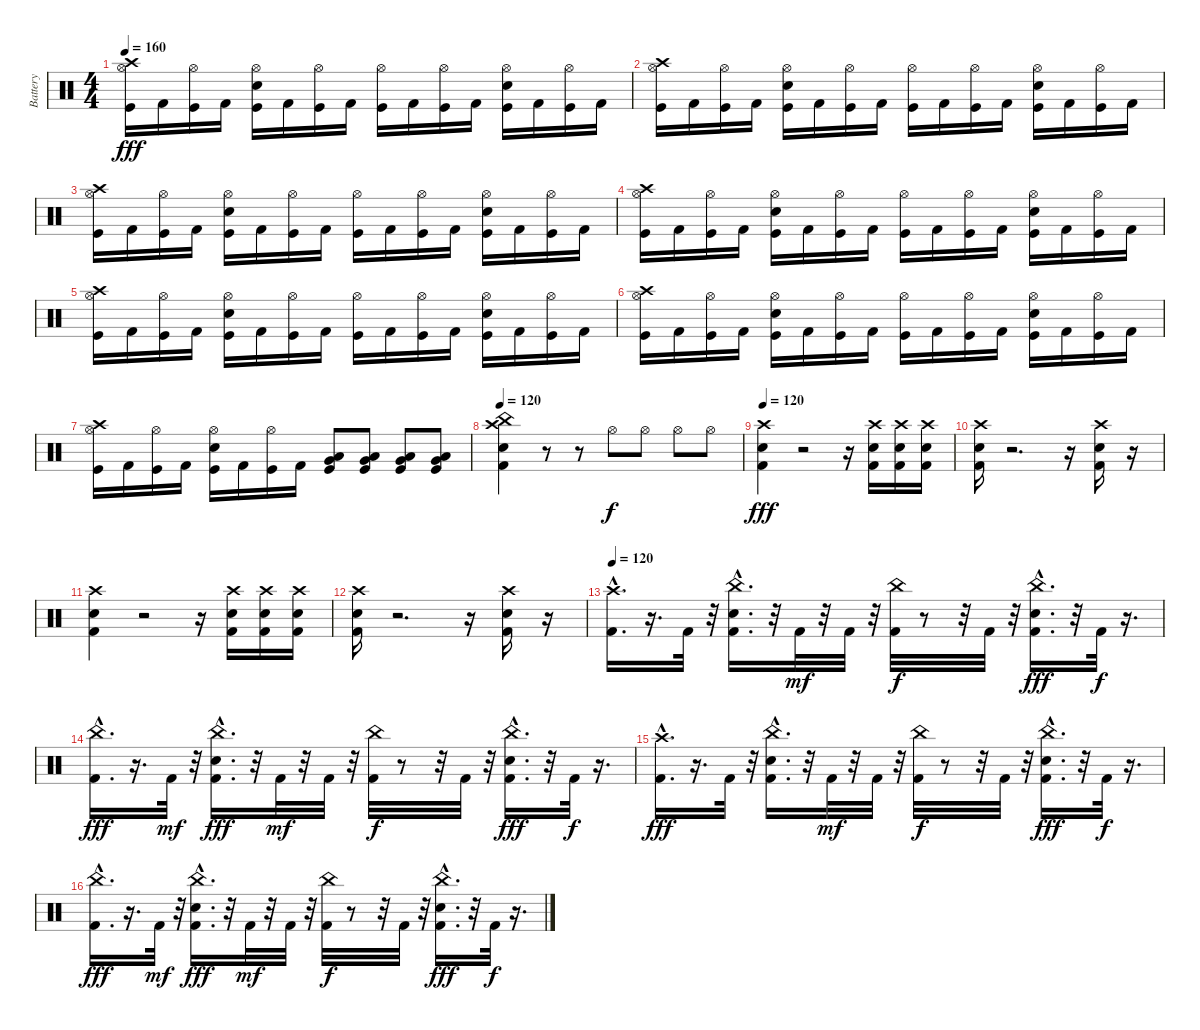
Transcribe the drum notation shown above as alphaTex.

\track ("Battery" "Battery") {instrument percussion}
\staff {score}
\articulation defaults
\ts (4 4)
\tempo 160
\clef neutral
\ks c
("Hi-Hat (open)" "Crash high (hit)" "Kick (hit)").16{dy fff} "Kick (hit) 2".16 ("Hi-Hat (open)" "Kick (hit)").16 "Kick (hit) 2".16 ("Electric Snare (hit)" "Hi-Hat (open)" "Kick (hit)").16 "Kick (hit) 2".16 ("Hi-Hat (open)" "Kick (hit)").16 "Kick (hit) 2".16 ("Hi-Hat (open)" "Kick (hit)").16 "Kick (hit) 2".16 ("Hi-Hat (open)" "Kick (hit)").16 "Kick (hit) 2".16 ("Electric Snare (hit)" "Hi-Hat (open)" "Kick (hit)").16 "Kick (hit) 2".16 ("Hi-Hat (open)" "Kick (hit)").16 "Kick (hit) 2".16 |
("Crash high (hit)" "Hi-Hat (open)" "Kick (hit)").16 "Kick (hit) 2".16 ("Hi-Hat (open)" "Kick (hit)").16 "Kick (hit) 2".16 ("Electric Snare (hit)" "Hi-Hat (open)" "Kick (hit)").16 "Kick (hit) 2".16 ("Hi-Hat (open)" "Kick (hit)").16 "Kick (hit) 2".16 ("Hi-Hat (open)" "Kick (hit)").16 "Kick (hit) 2".16 ("Hi-Hat (open)" "Kick (hit)").16 "Kick (hit) 2".16 ("Hi-Hat (open)" "Electric Snare (hit)" "Kick (hit)").16 "Kick (hit) 2".16 ("Hi-Hat (open)" "Kick (hit)").16 "Kick (hit) 2".16 |
("Hi-Hat (open)" "Crash high (hit)" "Kick (hit)").16 "Kick (hit) 2".16 ("Hi-Hat (open)" "Kick (hit)").16 "Kick (hit) 2".16 ("Hi-Hat (open)" "Electric Snare (hit)" "Kick (hit)").16 "Kick (hit) 2".16 ("Hi-Hat (open)" "Kick (hit)").16 "Kick (hit) 2".16 ("Hi-Hat (open)" "Kick (hit)").16 "Kick (hit) 2".16 ("Hi-Hat (open)" "Kick (hit)").16 "Kick (hit) 2".16 ("Electric Snare (hit)" "Hi-Hat (open)" "Kick (hit)").16 "Kick (hit) 2".16 ("Hi-Hat (open)" "Kick (hit)").16 "Kick (hit) 2".16 |
("Crash high (hit)" "Hi-Hat (open)" "Kick (hit)").16 "Kick (hit) 2".16 ("Hi-Hat (open)" "Kick (hit)").16 "Kick (hit) 2".16 ("Hi-Hat (open)" "Electric Snare (hit)" "Kick (hit)").16 "Kick (hit) 2".16 ("Hi-Hat (open)" "Kick (hit)").16 "Kick (hit) 2".16 ("Hi-Hat (open)" "Kick (hit)").16 "Kick (hit) 2".16 ("Hi-Hat (open)" "Kick (hit)").16 "Kick (hit) 2".16 ("Hi-Hat (open)" "Electric Snare (hit)" "Kick (hit)").16 "Kick (hit) 2".16 ("Hi-Hat (open)" "Kick (hit)").16 "Kick (hit) 2".16 |
("Crash high (hit)" "Hi-Hat (open)" "Kick (hit)").16 "Kick (hit) 2".16 ("Hi-Hat (open)" "Kick (hit)").16 "Kick (hit) 2".16 ("Electric Snare (hit)" "Hi-Hat (open)" "Kick (hit)").16 "Kick (hit) 2".16 ("Hi-Hat (open)" "Kick (hit)").16 "Kick (hit) 2".16 ("Hi-Hat (open)" "Kick (hit)").16 "Kick (hit) 2".16 ("Hi-Hat (open)" "Kick (hit)").16 "Kick (hit) 2".16 ("Electric Snare (hit)" "Hi-Hat (open)" "Kick (hit)").16 "Kick (hit) 2".16 ("Hi-Hat (open)" "Kick (hit)").16 "Kick (hit) 2".16 |
("Crash high (hit)" "Hi-Hat (open)" "Kick (hit)").16 "Kick (hit) 2".16 ("Hi-Hat (open)" "Kick (hit)").16 "Kick (hit) 2".16 ("Electric Snare (hit)" "Hi-Hat (open)" "Kick (hit)").16 "Kick (hit) 2".16 ("Hi-Hat (open)" "Kick (hit)").16 "Kick (hit) 2".16 ("Hi-Hat (open)" "Kick (hit)").16 "Kick (hit) 2".16 ("Hi-Hat (open)" "Kick (hit)").16 "Kick (hit) 2".16 ("Electric Snare (hit)" "Hi-Hat (open)" "Kick (hit)").16 "Kick (hit) 2".16 ("Hi-Hat (open)" "Kick (hit)").16 "Kick (hit) 2".16 |
("Hi-Hat (open)" "Crash high (hit)" "Kick (hit)").16 "Kick (hit) 2".16 ("Hi-Hat (open)" "Kick (hit)").16 "Kick (hit) 2".16 ("Hi-Hat (open)" "Electric Snare (hit)" "Kick (hit)").16 "Kick (hit) 2".16 ("Hi-Hat (open)" "Kick (hit)").16 "Kick (hit) 2".16 ("Very Low Tom (hit)" "Low Tom (hit)" "Kick (hit)").8 ("Low Tom (hit)" "Very Low Tom (hit)" "Kick (hit)").8 ("Very Low Tom (hit)" "Low Floor Tom (hit)" "Kick (hit)").8 ("Low Floor Tom (hit)" "Very Low Tom (hit)" "Kick (hit)").8 |
\tempo 120
("Electric Snare (hit)" "Crash high (hit)" "China (hit)" "Kick (hit) 2").4 r.8 r.8 "Hi-Hat (open)".8{dy f} "Hi-Hat (open)".8 "Hi-Hat (open)".8 "Hi-Hat (open)".8 |
\tempo 120
("Electric Snare (hit)" "Crash high (hit)" "Kick (hit) 2").4{dy fff} r.2 r.16 ("Crash high (hit)" "Electric Snare (hit)" "Kick (hit) 2").16 ("Electric Snare (hit)" "Crash high (hit)" "Kick (hit) 2").16 ("Electric Snare (hit)" "Crash high (hit)" "Kick (hit) 2").16 |
("Crash high (hit)" "Electric Snare (hit)" "Kick (hit) 2").16 r.2{d} r.16 ("Crash high (hit)" "Electric Snare (hit)" "Kick (hit) 2").16 r.16 |
("Electric Snare (hit)" "Crash high (hit)" "Kick (hit) 2").4 r.2 r.16 ("Crash high (hit)" "Electric Snare (hit)" "Kick (hit) 2").16 ("Crash high (hit)" "Electric Snare (hit)" "Kick (hit) 2").16 ("Crash high (hit)" "Electric Snare (hit)" "Kick (hit) 2").16 |
("Crash high (hit)" "Electric Snare (hit)" "Kick (hit) 2").16 r.2{d} r.16 ("Electric Snare (hit)" "Crash high (hit)" "Kick (hit) 2").16 r.16 |
\tempo 120
("Crash high (hit)" "Kick (hit) 2"{hac}).16{d} r.16{d} "Kick (hit) 2".32 r.32 ("China (hit)" "Electric Snare (hit)"{hac} "Kick (hit) 2").16{d} r.32 "Kick (hit) 2".32{dy mf} r.32 "Kick (hit) 2".32 r.32 ("China (hit)" "Kick (hit) 2").32{dy f} r.8 r.32 "Kick (hit) 2".32 r.32 ("Electric Snare (hit)"{hac} "Kick (hit) 2" "China (hit)").16{d dy fff} r.32 "Kick (hit) 2".32{dy f} r.16{d} |
("Kick (hit) 2"{hac} "China (hit)").16{d dy fff} r.16{d} "Kick (hit) 2".32{dy mf} r.32 ("China (hit)" "Kick (hit) 2" "Electric Snare (hit)"{hac}).16{d dy fff} r.32 "Kick (hit) 2".32{dy mf} r.32 "Kick (hit) 2".32 r.32 ("China (hit)" "Kick (hit) 2").32{dy f} r.8 r.32 "Kick (hit) 2".32 r.32 ("Kick (hit) 2" "China (hit)" "Electric Snare (hit)"{hac}).16{d dy fff} r.32 "Kick (hit) 2".32{dy f} r.16{d} |
("Kick (hit) 2"{hac} "Crash high (hit)").16{d dy fff} r.16{d} "Kick (hit) 2".32 r.32 ("Kick (hit) 2" "China (hit)" "Electric Snare (hit)"{hac}).16{d} r.32 "Kick (hit) 2".32{dy mf} r.32 "Kick (hit) 2".32 r.32 ("Kick (hit) 2" "China (hit)").32{dy f} r.8 r.32 "Kick (hit) 2".32 r.32 ("China (hit)" "Electric Snare (hit)"{hac} "Kick (hit) 2").16{d dy fff} r.32 "Kick (hit) 2".32{dy f} r.16{d} |
("Kick (hit) 2"{hac} "China (hit)").16{d dy fff} r.16{d} "Kick (hit) 2".32{dy mf} r.32 ("Electric Snare (hit)"{hac} "China (hit)" "Kick (hit) 2").16{d dy fff} r.32 "Kick (hit) 2".32{dy mf} r.32 "Kick (hit) 2".32 r.32 ("China (hit)" "Kick (hit) 2").32{dy f} r.8 r.32 "Kick (hit) 2".32 r.32 ("China (hit)" "Kick (hit) 2" "Electric Snare (hit)"{hac}).16{d dy fff} r.32 "Kick (hit) 2".32{dy f} r.16{d}
